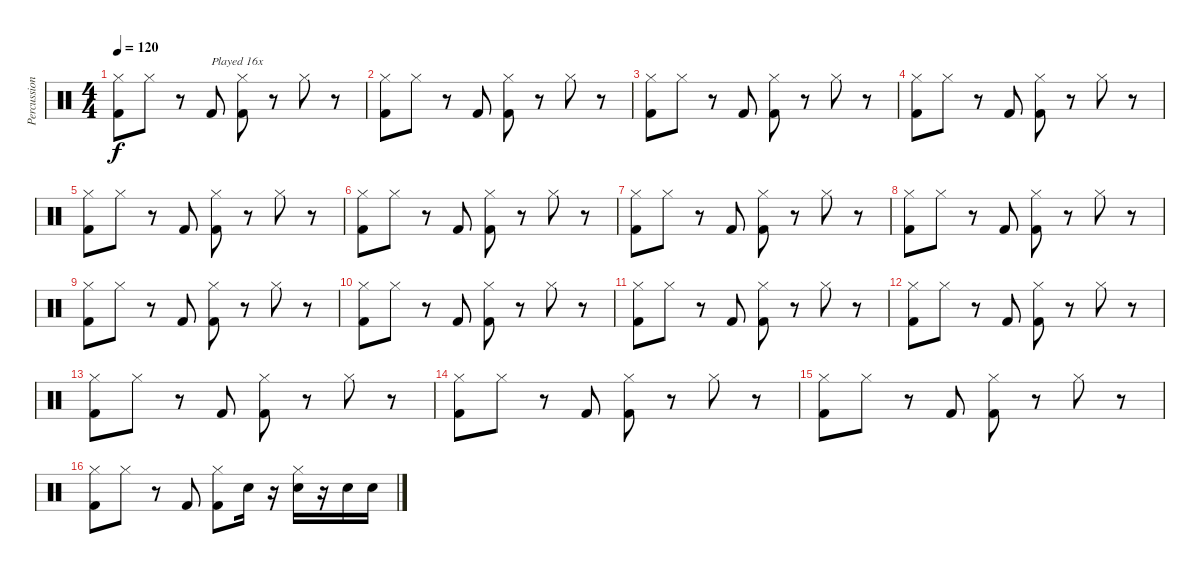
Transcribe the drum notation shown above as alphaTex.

\track ("Percussioni" "Percussion") {instrument percussion}
\staff {score}
\articulation defaults
\ts (4 4)
\tempo 120
\clef neutral
\ks c
("Hi-Hat (closed)" "Kick (hit) 2").8{dy f} "Hi-Hat (closed)".8 r.8 "Kick (hit) 2".8{txt "Played 16x"} ("Hi-Hat (closed)" "Kick (hit) 2").8 r.8 "Hi-Hat (closed)".8 r.8 |
("Hi-Hat (closed)" "Kick (hit) 2").8 "Hi-Hat (closed)".8 r.8 "Kick (hit) 2".8 ("Hi-Hat (closed)" "Kick (hit) 2").8 r.8 "Hi-Hat (closed)".8 r.8 |
("Hi-Hat (closed)" "Kick (hit) 2").8 "Hi-Hat (closed)".8 r.8 "Kick (hit) 2".8 ("Hi-Hat (closed)" "Kick (hit) 2").8 r.8 "Hi-Hat (closed)".8 r.8 |
("Hi-Hat (closed)" "Kick (hit) 2").8 "Hi-Hat (closed)".8 r.8 "Kick (hit) 2".8 ("Hi-Hat (closed)" "Kick (hit) 2").8 r.8 "Hi-Hat (closed)".8 r.8 |
("Hi-Hat (closed)" "Kick (hit) 2").8 "Hi-Hat (closed)".8 r.8 "Kick (hit) 2".8 ("Hi-Hat (closed)" "Kick (hit) 2").8 r.8 "Hi-Hat (closed)".8 r.8 |
("Hi-Hat (closed)" "Kick (hit) 2").8 "Hi-Hat (closed)".8 r.8 "Kick (hit) 2".8 ("Hi-Hat (closed)" "Kick (hit) 2").8 r.8 "Hi-Hat (closed)".8 r.8 |
("Hi-Hat (closed)" "Kick (hit) 2").8 "Hi-Hat (closed)".8 r.8 "Kick (hit) 2".8 ("Hi-Hat (closed)" "Kick (hit) 2").8 r.8 "Hi-Hat (closed)".8 r.8 |
("Hi-Hat (closed)" "Kick (hit) 2").8 "Hi-Hat (closed)".8 r.8 "Kick (hit) 2".8 ("Hi-Hat (closed)" "Kick (hit) 2").8 r.8 "Hi-Hat (closed)".8 r.8 |
("Hi-Hat (closed)" "Kick (hit) 2").8 "Hi-Hat (closed)".8 r.8 "Kick (hit) 2".8 ("Hi-Hat (closed)" "Kick (hit) 2").8 r.8 "Hi-Hat (closed)".8 r.8 |
("Hi-Hat (closed)" "Kick (hit) 2").8 "Hi-Hat (closed)".8 r.8 "Kick (hit) 2".8 ("Hi-Hat (closed)" "Kick (hit) 2").8 r.8 "Hi-Hat (closed)".8 r.8 |
("Hi-Hat (closed)" "Kick (hit) 2").8 "Hi-Hat (closed)".8 r.8 "Kick (hit) 2".8 ("Hi-Hat (closed)" "Kick (hit) 2").8 r.8 "Hi-Hat (closed)".8 r.8 |
("Hi-Hat (closed)" "Kick (hit) 2").8 "Hi-Hat (closed)".8 r.8 "Kick (hit) 2".8 ("Hi-Hat (closed)" "Kick (hit) 2").8 r.8 "Hi-Hat (closed)".8 r.8 |
("Hi-Hat (closed)" "Kick (hit) 2").8 "Hi-Hat (closed)".8 r.8 "Kick (hit) 2".8 ("Hi-Hat (closed)" "Kick (hit) 2").8 r.8 "Hi-Hat (closed)".8 r.8 |
("Hi-Hat (closed)" "Kick (hit) 2").8 "Hi-Hat (closed)".8 r.8 "Kick (hit) 2".8 ("Hi-Hat (closed)" "Kick (hit) 2").8 r.8 "Hi-Hat (closed)".8 r.8 |
("Hi-Hat (closed)" "Kick (hit) 2").8 "Hi-Hat (closed)".8 r.8 "Kick (hit) 2".8 ("Hi-Hat (closed)" "Kick (hit) 2").8 r.8 "Hi-Hat (closed)".8 r.8 |
("Hi-Hat (closed)" "Kick (hit) 2").8 "Hi-Hat (closed)".8 r.8 "Kick (hit) 2".8 ("Hi-Hat (closed)" "Kick (hit) 2").8 "Electric Snare (hit)".16 r.16 ("Electric Snare (hit)" "Hi-Hat (closed)").16 r.16 "Electric Snare (hit)".16 "Electric Snare (hit)".16
